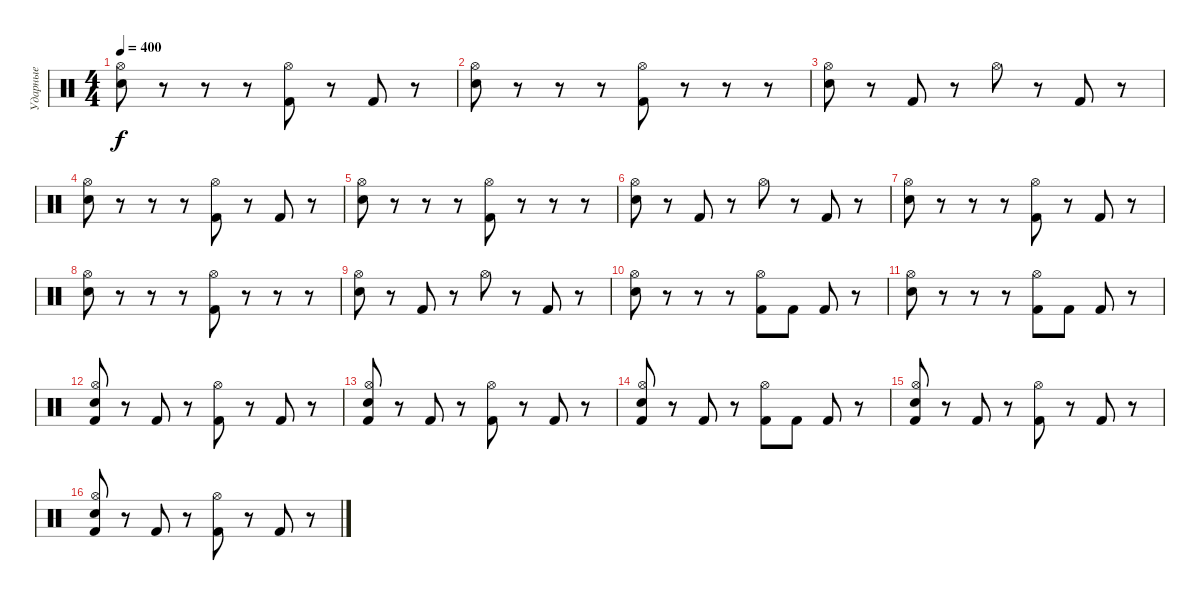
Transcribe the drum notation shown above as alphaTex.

\track ("Ударные" "Ударные") {instrument percussion}
\staff {score}
\articulation defaults
\ts (4 4)
\tempo 400
\clef neutral
\ks c
("Electric Snare (hit)" "Hi-Hat (open)").8{dy f} r.8 r.8 r.8 ("Kick (hit) 2" "Hi-Hat (open)").8 r.8 "Kick (hit) 2".8 r.8 |
("Electric Snare (hit)" "Hi-Hat (open)").8 r.8 r.8 r.8 ("Kick (hit) 2" "Hi-Hat (open)").8 r.8 r.8 r.8 |
("Electric Snare (hit)" "Hi-Hat (open)").8 r.8 "Kick (hit) 2".8 r.8 "Hi-Hat (open)".8 r.8 "Kick (hit) 2".8 r.8 |
("Electric Snare (hit)" "Hi-Hat (open)").8 r.8 r.8 r.8 ("Kick (hit) 2" "Hi-Hat (open)").8 r.8 "Kick (hit) 2".8 r.8 |
("Electric Snare (hit)" "Hi-Hat (open)").8 r.8 r.8 r.8 ("Kick (hit) 2" "Hi-Hat (open)").8 r.8 r.8 r.8 |
("Electric Snare (hit)" "Hi-Hat (open)").8 r.8 "Kick (hit) 2".8 r.8 "Hi-Hat (open)".8 r.8 "Kick (hit) 2".8 r.8 |
("Electric Snare (hit)" "Hi-Hat (open)").8 r.8 r.8 r.8 ("Kick (hit) 2" "Hi-Hat (open)").8 r.8 "Kick (hit) 2".8 r.8 |
("Electric Snare (hit)" "Hi-Hat (open)").8 r.8 r.8 r.8 ("Kick (hit) 2" "Hi-Hat (open)").8 r.8 r.8 r.8 |
("Electric Snare (hit)" "Hi-Hat (open)").8 r.8 "Kick (hit) 2".8 r.8 "Hi-Hat (open)".8 r.8 "Kick (hit) 2".8 r.8 |
("Electric Snare (hit)" "Hi-Hat (open)").8 r.8 r.8 r.8 ("Kick (hit) 2" "Hi-Hat (open)").8 "Kick (hit) 2".8 "Kick (hit) 2".8 r.8 |
("Electric Snare (hit)" "Hi-Hat (open)").8 r.8 r.8 r.8 ("Kick (hit) 2" "Hi-Hat (open)").8 "Kick (hit) 2".8 "Kick (hit) 2".8 r.8 |
("Electric Snare (hit)" "Hi-Hat (open)" "Kick (hit) 2").8 r.8 "Kick (hit) 2".8 r.8 ("Hi-Hat (open)" "Kick (hit) 2").8 r.8 "Kick (hit) 2".8 r.8 |
("Electric Snare (hit)" "Hi-Hat (open)" "Kick (hit) 2").8 r.8 "Kick (hit) 2".8 r.8 ("Kick (hit) 2" "Hi-Hat (open)").8 r.8 "Kick (hit) 2".8 r.8 |
("Electric Snare (hit)" "Hi-Hat (open)" "Kick (hit) 2").8 r.8 "Kick (hit) 2".8 r.8 ("Kick (hit) 2" "Hi-Hat (open)").8 "Kick (hit) 2".8 "Kick (hit) 2".8 r.8 |
("Electric Snare (hit)" "Hi-Hat (open)" "Kick (hit) 2").8 r.8 "Kick (hit) 2".8 r.8 ("Hi-Hat (open)" "Kick (hit) 2").8 r.8 "Kick (hit) 2".8 r.8 |
("Electric Snare (hit)" "Hi-Hat (open)" "Kick (hit) 2").8 r.8 "Kick (hit) 2".8 r.8 ("Kick (hit) 2" "Hi-Hat (open)").8 r.8 "Kick (hit) 2".8 r.8
